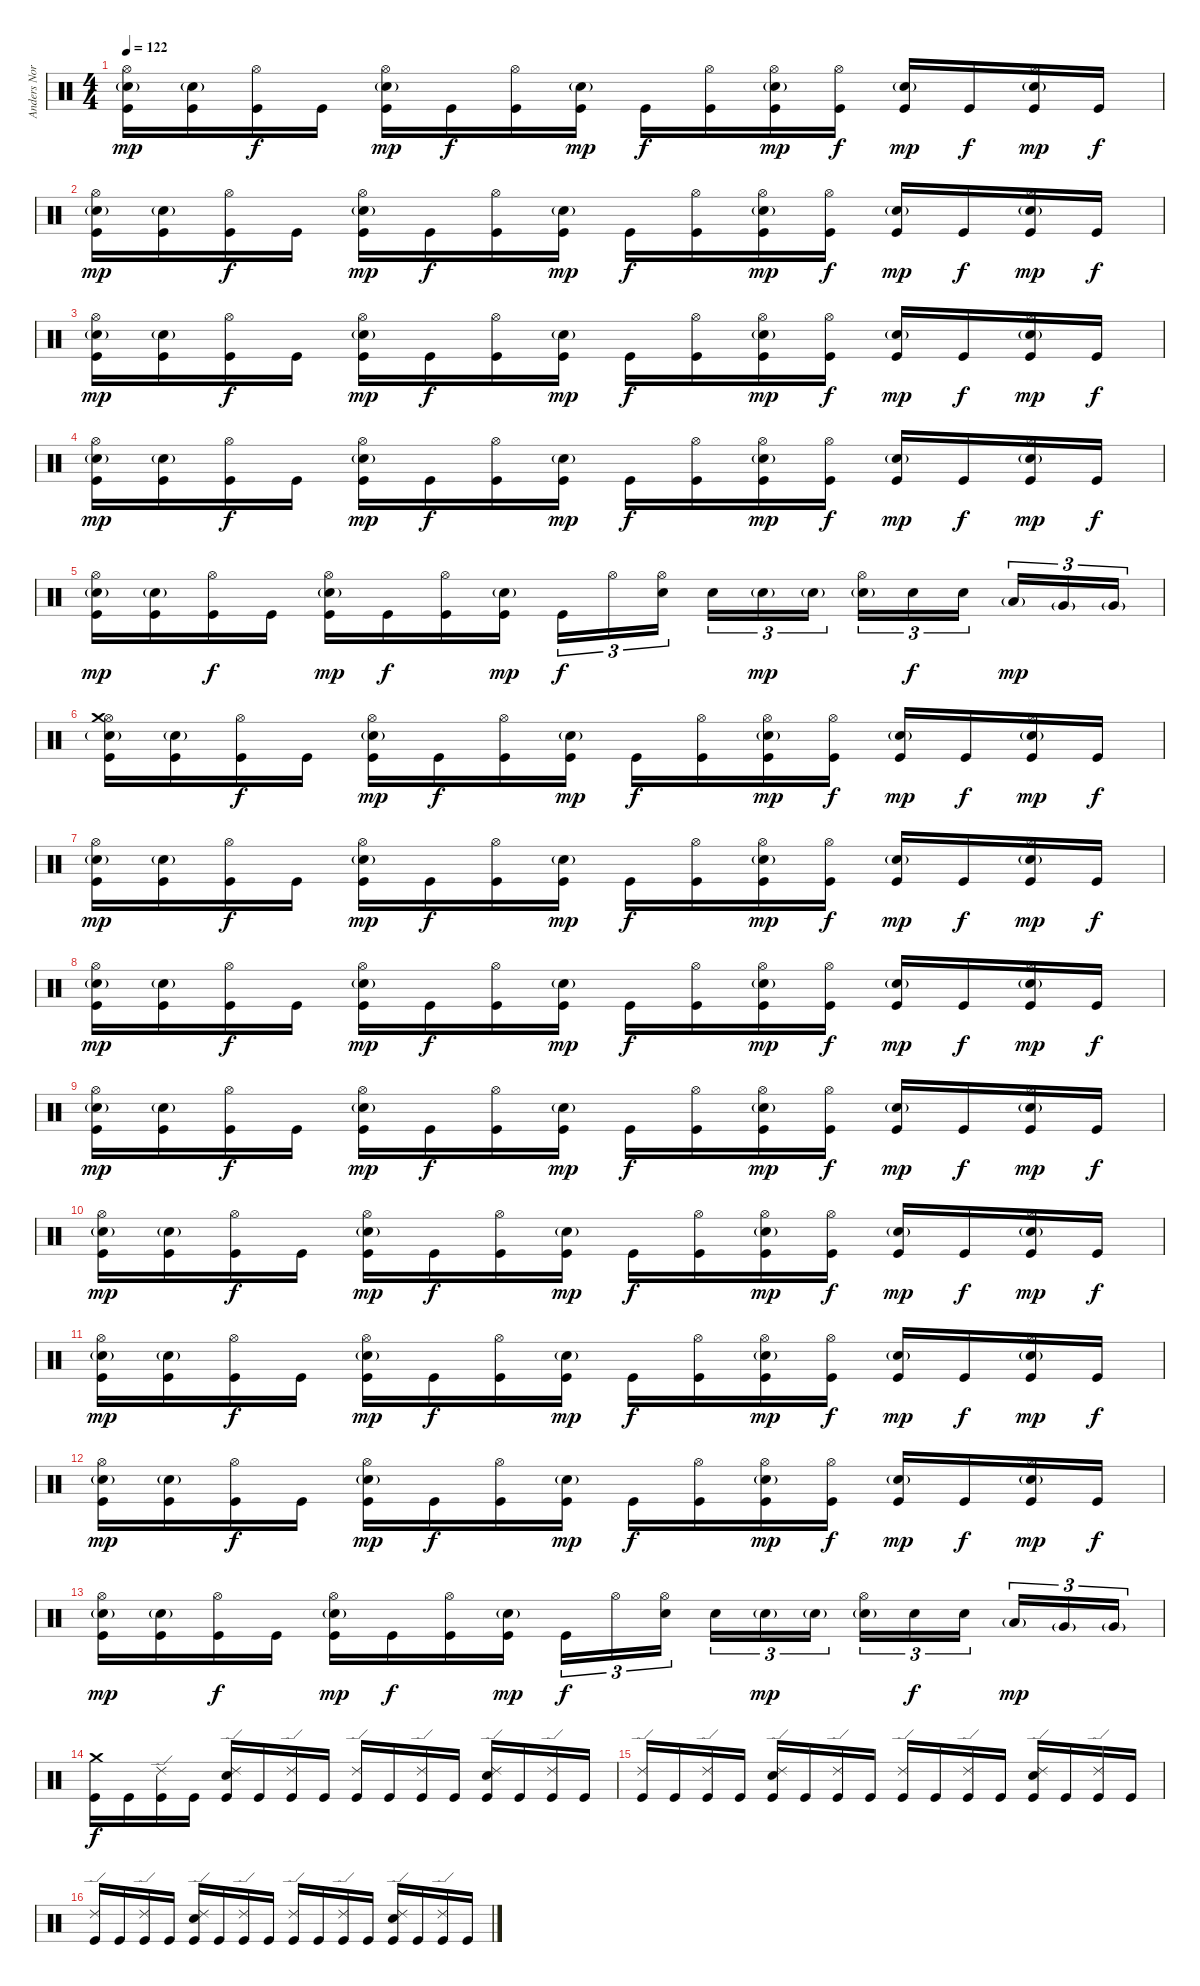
\track ("Anders Nordin" "Anders Nor") {instrument percussion}
\staff {score}
\articulation defaults
\ts (4 4)
\tempo 122
\clef neutral
\ks c
("Snare (hit) 2"{g} "Hi-Hat (open)" "Kick (hit)").16{dy mp} ("Snare (hit) 2"{g} "Kick (hit)").16 ("Hi-Hat (open)" "Kick (hit)").16{dy f} "Kick (hit)".16 ("Snare (hit) 2"{g} "Hi-Hat (open)" "Kick (hit)").16{dy mp} "Kick (hit)".16{dy f} ("Hi-Hat (open)" "Kick (hit)").16 ("Snare (hit) 2"{g} "Kick (hit)").16{dy mp} "Kick (hit)".16{dy f} ("Hi-Hat (open)" "Kick (hit)").16 ("Snare (hit) 2"{g} "Hi-Hat (open)" "Kick (hit)").16{dy mp} ("Hi-Hat (open)" "Kick (hit)").16{dy f} ("Snare (hit) 2"{g} "Kick (hit)").16{dy mp} "Kick (hit)".16{dy f} ("Snare (hit) 2"{g} "Hi-Hat (open)" "Kick (hit)").16{dy mp} "Kick (hit)".16{dy f} |
("Snare (hit) 2"{g} "Hi-Hat (open)" "Kick (hit)").16{dy mp} ("Snare (hit) 2"{g} "Kick (hit)").16 ("Hi-Hat (open)" "Kick (hit)").16{dy f} "Kick (hit)".16 ("Snare (hit) 2"{g} "Hi-Hat (open)" "Kick (hit)").16{dy mp} "Kick (hit)".16{dy f} ("Hi-Hat (open)" "Kick (hit)").16 ("Snare (hit) 2"{g} "Kick (hit)").16{dy mp} "Kick (hit)".16{dy f} ("Hi-Hat (open)" "Kick (hit)").16 ("Snare (hit) 2"{g} "Hi-Hat (open)" "Kick (hit)").16{dy mp} ("Hi-Hat (open)" "Kick (hit)").16{dy f} ("Snare (hit) 2"{g} "Kick (hit)").16{dy mp} "Kick (hit)".16{dy f} ("Snare (hit) 2"{g} "Hi-Hat (open)" "Kick (hit)").16{dy mp} "Kick (hit)".16{dy f} |
("Snare (hit) 2"{g} "Hi-Hat (open)" "Kick (hit)").16{dy mp} ("Snare (hit) 2"{g} "Kick (hit)").16 ("Hi-Hat (open)" "Kick (hit)").16{dy f} "Kick (hit)".16 ("Snare (hit) 2"{g} "Hi-Hat (open)" "Kick (hit)").16{dy mp} "Kick (hit)".16{dy f} ("Hi-Hat (open)" "Kick (hit)").16 ("Snare (hit) 2"{g} "Kick (hit)").16{dy mp} "Kick (hit)".16{dy f} ("Hi-Hat (open)" "Kick (hit)").16 ("Snare (hit) 2"{g} "Hi-Hat (open)" "Kick (hit)").16{dy mp} ("Hi-Hat (open)" "Kick (hit)").16{dy f} ("Snare (hit) 2"{g} "Kick (hit)").16{dy mp} "Kick (hit)".16{dy f} ("Snare (hit) 2"{g} "Hi-Hat (open)" "Kick (hit)").16{dy mp} "Kick (hit)".16{dy f} |
("Snare (hit) 2"{g} "Hi-Hat (open)" "Kick (hit)").16{dy mp} ("Snare (hit) 2"{g} "Kick (hit)").16 ("Hi-Hat (open)" "Kick (hit)").16{dy f} "Kick (hit)".16 ("Snare (hit) 2"{g} "Hi-Hat (open)" "Kick (hit)").16{dy mp} "Kick (hit)".16{dy f} ("Hi-Hat (open)" "Kick (hit)").16 ("Snare (hit) 2"{g} "Kick (hit)").16{dy mp} "Kick (hit)".16{dy f} ("Hi-Hat (open)" "Kick (hit)").16 ("Snare (hit) 2"{g} "Hi-Hat (open)" "Kick (hit)").16{dy mp} ("Hi-Hat (open)" "Kick (hit)").16{dy f} ("Snare (hit) 2"{g} "Kick (hit)").16{dy mp} "Kick (hit)".16{dy f} ("Snare (hit) 2"{g} "Hi-Hat (open)" "Kick (hit)").16{dy mp} "Kick (hit)".16{dy f} |
("Snare (hit) 2"{g} "Hi-Hat (open)" "Kick (hit)").16{dy mp} ("Snare (hit) 2"{g} "Kick (hit)").16 ("Hi-Hat (open)" "Kick (hit)").16{dy f} "Kick (hit)".16 ("Snare (hit) 2"{g} "Hi-Hat (open)" "Kick (hit)").16{dy mp} "Kick (hit)".16{dy f} ("Hi-Hat (open)" "Kick (hit)").16 ("Snare (hit) 2"{g} "Kick (hit)").16{dy mp} "Kick (hit)".16{tu (3 2) dy f} "Hi-Hat (open)".16{tu (3 2)} ("Snare (hit) 2" "Hi-Hat (open)").16{tu (3 2) beam splitsecondary} "Snare (hit) 2".16{tu (3 2)} "Snare (hit) 2"{g}.16{tu (3 2) dy mp} "Snare (hit) 2"{g}.16{tu (3 2)} ("Snare (hit) 2"{g} "Hi-Hat (open)").16{tu (3 2)} "Snare (hit) 2".16{tu (3 2) dy f} "Snare (hit) 2".16{tu (3 2) beam splitsecondary} "Low Tom (hit)"{g}.16{tu (3 2) dy mp} "Very Low Tom (hit)"{g}.16{tu (3 2)} "Very Low Tom (hit)"{g}.16{tu (3 2)} |
("Snare (hit) 2"{g} "Hi-Hat (open)" "Crash medium (hit)" "Kick (hit)").16 ("Snare (hit) 2"{g} "Kick (hit)").16 ("Hi-Hat (open)" "Kick (hit)").16{dy f} "Kick (hit)".16 ("Snare (hit) 2"{g} "Hi-Hat (open)" "Kick (hit)").16{dy mp} "Kick (hit)".16{dy f} ("Hi-Hat (open)" "Kick (hit)").16 ("Snare (hit) 2"{g} "Kick (hit)").16{dy mp} "Kick (hit)".16{dy f} ("Hi-Hat (open)" "Kick (hit)").16 ("Snare (hit) 2"{g} "Hi-Hat (open)" "Kick (hit)").16{dy mp} ("Hi-Hat (open)" "Kick (hit)").16{dy f} ("Snare (hit) 2"{g} "Kick (hit)").16{dy mp} "Kick (hit)".16{dy f} ("Snare (hit) 2"{g} "Hi-Hat (open)" "Kick (hit)").16{dy mp} "Kick (hit)".16{dy f} |
("Snare (hit) 2"{g} "Hi-Hat (open)" "Kick (hit)").16{dy mp} ("Snare (hit) 2"{g} "Kick (hit)").16 ("Hi-Hat (open)" "Kick (hit)").16{dy f} "Kick (hit)".16 ("Snare (hit) 2"{g} "Hi-Hat (open)" "Kick (hit)").16{dy mp} "Kick (hit)".16{dy f} ("Hi-Hat (open)" "Kick (hit)").16 ("Snare (hit) 2"{g} "Kick (hit)").16{dy mp} "Kick (hit)".16{dy f} ("Hi-Hat (open)" "Kick (hit)").16 ("Snare (hit) 2"{g} "Hi-Hat (open)" "Kick (hit)").16{dy mp} ("Hi-Hat (open)" "Kick (hit)").16{dy f} ("Snare (hit) 2"{g} "Kick (hit)").16{dy mp} "Kick (hit)".16{dy f} ("Snare (hit) 2"{g} "Hi-Hat (open)" "Kick (hit)").16{dy mp} "Kick (hit)".16{dy f} |
("Snare (hit) 2"{g} "Hi-Hat (open)" "Kick (hit)").16{dy mp} ("Snare (hit) 2"{g} "Kick (hit)").16 ("Hi-Hat (open)" "Kick (hit)").16{dy f} "Kick (hit)".16 ("Snare (hit) 2"{g} "Hi-Hat (open)" "Kick (hit)").16{dy mp} "Kick (hit)".16{dy f} ("Hi-Hat (open)" "Kick (hit)").16 ("Snare (hit) 2"{g} "Kick (hit)").16{dy mp} "Kick (hit)".16{dy f} ("Hi-Hat (open)" "Kick (hit)").16 ("Snare (hit) 2"{g} "Hi-Hat (open)" "Kick (hit)").16{dy mp} ("Hi-Hat (open)" "Kick (hit)").16{dy f} ("Snare (hit) 2"{g} "Kick (hit)").16{dy mp} "Kick (hit)".16{dy f} ("Snare (hit) 2"{g} "Hi-Hat (open)" "Kick (hit)").16{dy mp} "Kick (hit)".16{dy f} |
("Snare (hit) 2"{g} "Hi-Hat (open)" "Kick (hit)").16{dy mp} ("Snare (hit) 2"{g} "Kick (hit)").16 ("Hi-Hat (open)" "Kick (hit)").16{dy f} "Kick (hit)".16 ("Snare (hit) 2"{g} "Hi-Hat (open)" "Kick (hit)").16{dy mp} "Kick (hit)".16{dy f} ("Hi-Hat (open)" "Kick (hit)").16 ("Snare (hit) 2"{g} "Kick (hit)").16{dy mp} "Kick (hit)".16{dy f} ("Hi-Hat (open)" "Kick (hit)").16 ("Snare (hit) 2"{g} "Hi-Hat (open)" "Kick (hit)").16{dy mp} ("Hi-Hat (open)" "Kick (hit)").16{dy f} ("Snare (hit) 2"{g} "Kick (hit)").16{dy mp} "Kick (hit)".16{dy f} ("Snare (hit) 2"{g} "Hi-Hat (open)" "Kick (hit)").16{dy mp} "Kick (hit)".16{dy f} |
("Snare (hit) 2"{g} "Hi-Hat (open)" "Kick (hit)").16{dy mp} ("Snare (hit) 2"{g} "Kick (hit)").16 ("Hi-Hat (open)" "Kick (hit)").16{dy f} "Kick (hit)".16 ("Snare (hit) 2"{g} "Hi-Hat (open)" "Kick (hit)").16{dy mp} "Kick (hit)".16{dy f} ("Hi-Hat (open)" "Kick (hit)").16 ("Snare (hit) 2"{g} "Kick (hit)").16{dy mp} "Kick (hit)".16{dy f} ("Hi-Hat (open)" "Kick (hit)").16 ("Snare (hit) 2"{g} "Hi-Hat (open)" "Kick (hit)").16{dy mp} ("Hi-Hat (open)" "Kick (hit)").16{dy f} ("Snare (hit) 2"{g} "Kick (hit)").16{dy mp} "Kick (hit)".16{dy f} ("Snare (hit) 2"{g} "Hi-Hat (open)" "Kick (hit)").16{dy mp} "Kick (hit)".16{dy f} |
("Snare (hit) 2"{g} "Hi-Hat (open)" "Kick (hit)").16{dy mp} ("Snare (hit) 2"{g} "Kick (hit)").16 ("Hi-Hat (open)" "Kick (hit)").16{dy f} "Kick (hit)".16 ("Snare (hit) 2"{g} "Hi-Hat (open)" "Kick (hit)").16{dy mp} "Kick (hit)".16{dy f} ("Hi-Hat (open)" "Kick (hit)").16 ("Snare (hit) 2"{g} "Kick (hit)").16{dy mp} "Kick (hit)".16{dy f} ("Hi-Hat (open)" "Kick (hit)").16 ("Snare (hit) 2"{g} "Hi-Hat (open)" "Kick (hit)").16{dy mp} ("Hi-Hat (open)" "Kick (hit)").16{dy f} ("Snare (hit) 2"{g} "Kick (hit)").16{dy mp} "Kick (hit)".16{dy f} ("Snare (hit) 2"{g} "Hi-Hat (open)" "Kick (hit)").16{dy mp} "Kick (hit)".16{dy f} |
("Snare (hit) 2"{g} "Hi-Hat (open)" "Kick (hit)").16{dy mp} ("Snare (hit) 2"{g} "Kick (hit)").16 ("Hi-Hat (open)" "Kick (hit)").16{dy f} "Kick (hit)".16 ("Snare (hit) 2"{g} "Hi-Hat (open)" "Kick (hit)").16{dy mp} "Kick (hit)".16{dy f} ("Hi-Hat (open)" "Kick (hit)").16 ("Snare (hit) 2"{g} "Kick (hit)").16{dy mp} "Kick (hit)".16{dy f} ("Hi-Hat (open)" "Kick (hit)").16 ("Snare (hit) 2"{g} "Hi-Hat (open)" "Kick (hit)").16{dy mp} ("Hi-Hat (open)" "Kick (hit)").16{dy f} ("Snare (hit) 2"{g} "Kick (hit)").16{dy mp} "Kick (hit)".16{dy f} ("Snare (hit) 2"{g} "Hi-Hat (open)" "Kick (hit)").16{dy mp} "Kick (hit)".16{dy f} |
("Snare (hit) 2"{g} "Hi-Hat (open)" "Kick (hit)").16{dy mp} ("Snare (hit) 2"{g} "Kick (hit)").16 ("Hi-Hat (open)" "Kick (hit)").16{dy f} "Kick (hit)".16 ("Snare (hit) 2"{g} "Hi-Hat (open)" "Kick (hit)").16{dy mp} "Kick (hit)".16{dy f} ("Hi-Hat (open)" "Kick (hit)").16 ("Snare (hit) 2"{g} "Kick (hit)").16{dy mp} "Kick (hit)".16{tu (3 2) dy f} "Hi-Hat (open)".16{tu (3 2)} ("Snare (hit) 2" "Hi-Hat (open)").16{tu (3 2) beam splitsecondary} "Snare (hit) 2".16{tu (3 2)} "Snare (hit) 2"{g}.16{tu (3 2) dy mp} "Snare (hit) 2"{g}.16{tu (3 2)} ("Snare (hit) 2"{g} "Hi-Hat (open)").16{tu (3 2)} "Snare (hit) 2".16{tu (3 2) dy f} "Snare (hit) 2".16{tu (3 2) beam splitsecondary} "Low Tom (hit)"{g}.16{tu (3 2) dy mp} "Very Low Tom (hit)"{g}.16{tu (3 2)} "Very Low Tom (hit)"{g}.16{tu (3 2)} |
("Crash medium (hit)" "Kick (hit)").16{dy f} "Kick (hit)".16 ("Ride (edge) 2" "Kick (hit)").16 "Kick (hit)".16 ("Ride (edge) 2" "Snare (hit) 2" "Kick (hit)").16 "Kick (hit)".16 ("Ride (edge) 2" "Kick (hit)").16 "Kick (hit)".16 ("Ride (edge) 2" "Kick (hit)").16 "Kick (hit)".16 ("Ride (edge) 2" "Kick (hit)").16 "Kick (hit)".16 ("Ride (edge) 2" "Snare (hit) 2" "Kick (hit)").16 "Kick (hit)".16 ("Ride (edge) 2" "Kick (hit)").16 "Kick (hit)".16 |
("Ride (edge) 2" "Kick (hit)").16 "Kick (hit)".16 ("Ride (edge) 2" "Kick (hit)").16 "Kick (hit)".16 ("Ride (edge) 2" "Snare (hit) 2" "Kick (hit)").16 "Kick (hit)".16 ("Ride (edge) 2" "Kick (hit)").16 "Kick (hit)".16 ("Ride (edge) 2" "Kick (hit)").16 "Kick (hit)".16 ("Ride (edge) 2" "Kick (hit)").16 "Kick (hit)".16 ("Ride (edge) 2" "Snare (hit) 2" "Kick (hit)").16 "Kick (hit)".16 ("Ride (edge) 2" "Kick (hit)").16 "Kick (hit)".16 |
("Ride (edge) 2" "Kick (hit)").16 "Kick (hit)".16 ("Ride (edge) 2" "Kick (hit)").16 "Kick (hit)".16 ("Ride (edge) 2" "Snare (hit) 2" "Kick (hit)").16 "Kick (hit)".16 ("Ride (edge) 2" "Kick (hit)").16 "Kick (hit)".16 ("Ride (edge) 2" "Kick (hit)").16 "Kick (hit)".16 ("Ride (edge) 2" "Kick (hit)").16 "Kick (hit)".16 ("Ride (edge) 2" "Snare (hit) 2" "Kick (hit)").16 "Kick (hit)".16 ("Ride (edge) 2" "Kick (hit)").16 "Kick (hit)".16
